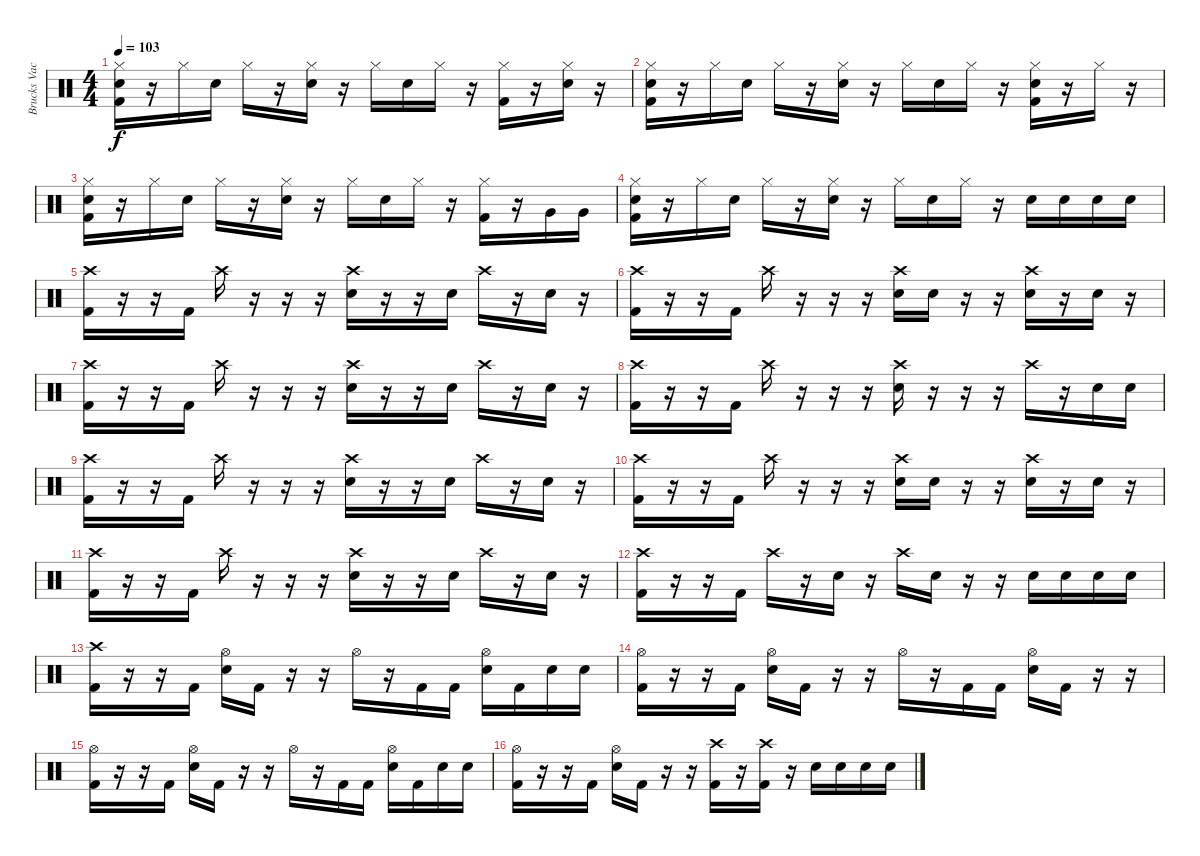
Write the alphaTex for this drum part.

\track ("Brucks Vackerman" "Brucks Vac") {instrument percussion}
\staff {score}
\articulation defaults
\ts (4 4)
\tempo 103
\clef neutral
\ks c
("Hi-Hat (closed)" "Electric Snare (hit)" "Kick (hit) 2").16{dy f} r.16 "Hi-Hat (closed)".16 "Electric Snare (hit)".16 "Hi-Hat (closed)".16 r.16 ("Hi-Hat (closed)" "Electric Snare (hit)").16 r.16 "Hi-Hat (closed)".16 "Electric Snare (hit)".16 "Hi-Hat (closed)".16 r.16 ("Hi-Hat (closed)" "Kick (hit) 2").16 r.16 ("Hi-Hat (closed)" "Electric Snare (hit)").16 r.16 |
("Hi-Hat (closed)" "Electric Snare (hit)" "Kick (hit) 2").16 r.16 "Hi-Hat (closed)".16 "Electric Snare (hit)".16 "Hi-Hat (closed)".16 r.16 ("Hi-Hat (closed)" "Electric Snare (hit)").16 r.16 "Hi-Hat (closed)".16 "Electric Snare (hit)".16 "Hi-Hat (closed)".16 r.16 ("Hi-Hat (closed)" "Electric Snare (hit)" "Kick (hit) 2").16 r.16 "Hi-Hat (closed)".16 r.16 |
("Hi-Hat (closed)" "Electric Snare (hit)" "Kick (hit) 2").16 r.16 "Hi-Hat (closed)".16 "Electric Snare (hit)".16 "Hi-Hat (closed)".16 r.16 ("Hi-Hat (closed)" "Electric Snare (hit)").16 r.16 "Hi-Hat (closed)".16 "Electric Snare (hit)".16 "Hi-Hat (closed)".16 r.16 ("Hi-Hat (closed)" "Kick (hit) 2").16 r.16 "Very Low Tom (hit)".16 "Very Low Tom (hit)".16 |
("Hi-Hat (closed)" "Electric Snare (hit)" "Kick (hit) 2").16 r.16 "Hi-Hat (closed)".16 "Electric Snare (hit)".16 "Hi-Hat (closed)".16 r.16 ("Hi-Hat (closed)" "Electric Snare (hit)").16 r.16 "Hi-Hat (closed)".16 "Electric Snare (hit)".16 "Hi-Hat (closed)".16 r.16 "Electric Snare (hit)".16 "Electric Snare (hit)".16 "Electric Snare (hit)".16 "Electric Snare (hit)".16 |
("Crash high (hit)" "Kick (hit) 2").16 r.16 r.16 "Kick (hit) 2".16 "Crash high (hit)".16 r.16 r.16 r.16 ("Crash high (hit)" "Electric Snare (hit)").16 r.16 r.16 "Electric Snare (hit)".16 "Crash high (hit)".16 r.16 "Electric Snare (hit)".16 r.16 |
("Crash high (hit)" "Kick (hit) 2").16 r.16 r.16 "Kick (hit) 2".16 "Crash high (hit)".16 r.16 r.16 r.16 ("Crash high (hit)" "Electric Snare (hit)").16 "Electric Snare (hit)".16 r.16 r.16 ("Crash high (hit)" "Electric Snare (hit)").16 r.16 "Electric Snare (hit)".16 r.16 |
("Crash high (hit)" "Kick (hit) 2").16 r.16 r.16 "Kick (hit) 2".16 "Crash high (hit)".16 r.16 r.16 r.16 ("Crash high (hit)" "Electric Snare (hit)").16 r.16 r.16 "Electric Snare (hit)".16 "Crash high (hit)".16 r.16 "Electric Snare (hit)".16 r.16 |
("Crash high (hit)" "Kick (hit) 2").16 r.16 r.16 "Kick (hit) 2".16 "Crash high (hit)".16 r.16 r.16 r.16 ("Crash high (hit)" "Electric Snare (hit)").16 r.16 r.16 r.16 "Crash high (hit)".16 r.16 "Electric Snare (hit)".16 "Electric Snare (hit)".16 |
("Crash high (hit)" "Kick (hit) 2").16 r.16 r.16 "Kick (hit) 2".16 "Crash high (hit)".16 r.16 r.16 r.16 ("Crash high (hit)" "Electric Snare (hit)").16 r.16 r.16 "Electric Snare (hit)".16 "Crash high (hit)".16 r.16 "Electric Snare (hit)".16 r.16 |
("Crash high (hit)" "Kick (hit) 2").16 r.16 r.16 "Kick (hit) 2".16 "Crash high (hit)".16 r.16 r.16 r.16 ("Crash high (hit)" "Electric Snare (hit)").16 "Electric Snare (hit)".16 r.16 r.16 ("Crash high (hit)" "Electric Snare (hit)").16 r.16 "Electric Snare (hit)".16 r.16 |
("Crash high (hit)" "Kick (hit) 2").16 r.16 r.16 "Kick (hit) 2".16 "Crash high (hit)".16 r.16 r.16 r.16 ("Crash high (hit)" "Electric Snare (hit)").16 r.16 r.16 "Electric Snare (hit)".16 "Crash high (hit)".16 r.16 "Electric Snare (hit)".16 r.16 |
("Crash high (hit)" "Kick (hit) 2").16 r.16 r.16 "Kick (hit) 2".16 "Crash high (hit)".16 r.16 "Electric Snare (hit)".16 r.16 "Crash high (hit)".16 "Electric Snare (hit)".16 r.16 r.16 "Electric Snare (hit)".16 "Electric Snare (hit)".16 "Electric Snare (hit)".16 "Electric Snare (hit)".16 |
("Crash high (hit)" "Kick (hit) 2").16 r.16 r.16 "Kick (hit) 2".16 ("Hi-Hat (open)" "Electric Snare (hit)").16 "Kick (hit) 2".16 r.16 r.16 "Hi-Hat (open)".16 r.16 "Kick (hit) 2".16 "Kick (hit) 2".16 ("Hi-Hat (open)" "Electric Snare (hit)").16 "Kick (hit) 2".16 "Electric Snare (hit)".16 "Electric Snare (hit)".16 |
("Hi-Hat (open)" "Kick (hit) 2").16 r.16 r.16 "Kick (hit) 2".16 ("Hi-Hat (open)" "Electric Snare (hit)").16 "Kick (hit) 2".16 r.16 r.16 "Hi-Hat (open)".16 r.16 "Kick (hit) 2".16 "Kick (hit) 2".16 ("Hi-Hat (open)" "Electric Snare (hit)").16 "Kick (hit) 2".16 r.16 r.16 |
("Hi-Hat (open)" "Kick (hit) 2").16 r.16 r.16 "Kick (hit) 2".16 ("Hi-Hat (open)" "Electric Snare (hit)").16 "Kick (hit) 2".16 r.16 r.16 "Hi-Hat (open)".16 r.16 "Kick (hit) 2".16 "Kick (hit) 2".16 ("Hi-Hat (open)" "Electric Snare (hit)").16 "Kick (hit) 2".16 "Electric Snare (hit)".16 "Electric Snare (hit)".16 |
("Hi-Hat (open)" "Kick (hit) 2").16 r.16 r.16 "Kick (hit) 2".16 ("Hi-Hat (open)" "Electric Snare (hit)").16 "Kick (hit) 2".16 r.16 r.16 ("Crash high (hit)" "Kick (hit) 2").16 r.16 ("Crash high (hit)" "Kick (hit) 2").16 r.16 "Electric Snare (hit)".16 "Electric Snare (hit)".16 "Electric Snare (hit)".16 "Electric Snare (hit)".16
